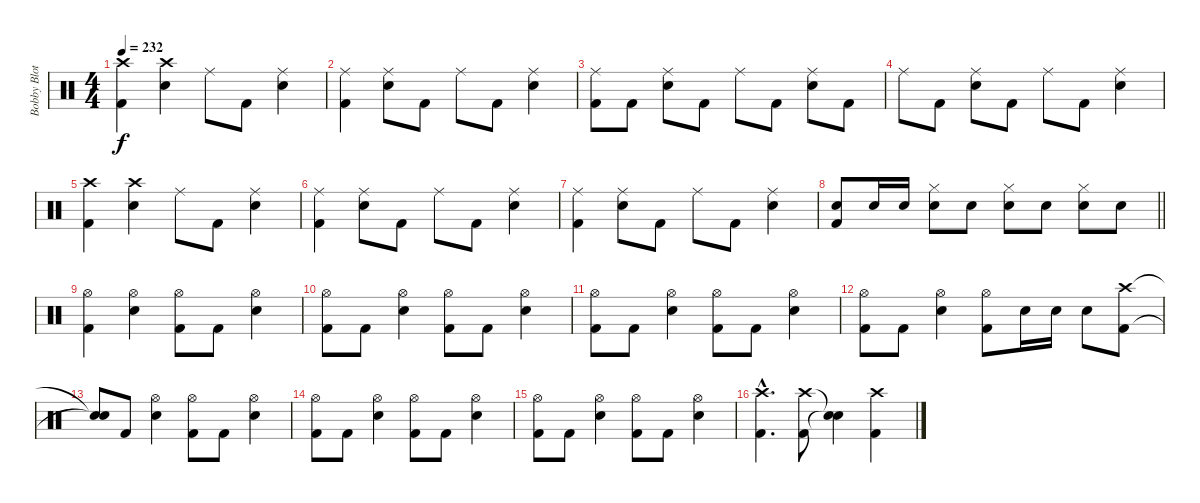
\track ("Bobby Blotzer" "Bobby Blot") {instrument percussion}
\staff {score}
\articulation defaults
\ts (4 4)
\tempo 232
\clef neutral
\ks c
("Crash high (hit)" "Kick (hit) 2").4{dy f} ("Crash high (hit)" "Electric Snare (hit)").4 "Ride (middle)".8 "Kick (hit) 2".8 ("Ride (middle)" "Electric Snare (hit)").4 |
("Ride (middle)" "Kick (hit) 2").4 ("Ride (middle)" "Electric Snare (hit)").8 "Kick (hit) 2".8 "Ride (middle)".8 "Kick (hit) 2".8 ("Ride (middle)" "Electric Snare (hit)").4 |
("Ride (middle)" "Kick (hit) 2").8 "Kick (hit) 2".8 ("Ride (middle)" "Electric Snare (hit)").8 "Kick (hit) 2".8 "Ride (middle)".8 "Kick (hit) 2".8 ("Ride (middle)" "Electric Snare (hit)").8 "Kick (hit) 2".8 |
"Ride (middle)".8 "Kick (hit) 2".8 ("Ride (middle)" "Electric Snare (hit)").8 "Kick (hit) 2".8 "Ride (middle)".8 "Kick (hit) 2".8 ("Ride (middle)" "Electric Snare (hit)").4 |
("Crash high (hit)" "Kick (hit) 2").4 ("Crash high (hit)" "Electric Snare (hit)").4 "Ride (middle)".8 "Kick (hit) 2".8 ("Ride (middle)" "Electric Snare (hit)").4 |
("Ride (middle)" "Kick (hit) 2").4 ("Ride (middle)" "Electric Snare (hit)").8 "Kick (hit) 2".8 "Ride (middle)".8 "Kick (hit) 2".8 ("Ride (middle)" "Electric Snare (hit)").4 |
("Ride (middle)" "Kick (hit) 2").4 ("Ride (middle)" "Electric Snare (hit)").8 "Kick (hit) 2".8 "Ride (middle)".8 "Kick (hit) 2".8 ("Ride (middle)" "Electric Snare (hit)").4 |
\barLineRight lightlight
("Electric Snare (hit)" "Kick (hit) 2").8 "Electric Snare (hit)".16 "Electric Snare (hit)".16 ("Hi-Hat (closed)" "Electric Snare (hit)").8 "Electric Snare (hit)".8 ("Hi-Hat (closed)" "Electric Snare (hit)").8 "Electric Snare (hit)".8 ("Hi-Hat (closed)" "Electric Snare (hit)").8 "Electric Snare (hit)".8 |
("Hi-Hat (open)" "Kick (hit) 2").4 ("Hi-Hat (open)" "Electric Snare (hit)").4 ("Hi-Hat (open)" "Kick (hit) 2").8 "Kick (hit) 2".8 ("Hi-Hat (open)" "Electric Snare (hit)").4 |
("Hi-Hat (open)" "Kick (hit) 2").8 "Kick (hit) 2".8 ("Hi-Hat (open)" "Electric Snare (hit)").4 ("Hi-Hat (open)" "Kick (hit) 2").8 "Kick (hit) 2".8 ("Hi-Hat (open)" "Electric Snare (hit)").4 |
("Hi-Hat (open)" "Kick (hit) 2").8 "Kick (hit) 2".8 ("Hi-Hat (open)" "Electric Snare (hit)").4 ("Hi-Hat (open)" "Kick (hit) 2").8 "Kick (hit) 2".8 ("Hi-Hat (open)" "Electric Snare (hit)").4 |
("Hi-Hat (open)" "Kick (hit) 2").8 "Kick (hit) 2".8 ("Hi-Hat (open)" "Electric Snare (hit)").4 ("Hi-Hat (open)" "Kick (hit) 2").8 "Electric Snare (hit)".16 "Electric Snare (hit)".16 "Electric Snare (hit)".8 ("Crash high (hit)" "Kick (hit) 2").8 |
("Snare (hit)"{t} "Snare (hit)"{t}).8 "Kick (hit) 2".8 ("Hi-Hat (open)" "Electric Snare (hit)").4 ("Hi-Hat (open)" "Kick (hit) 2").8 "Kick (hit) 2".8 ("Hi-Hat (open)" "Electric Snare (hit)").4 |
("Hi-Hat (open)" "Kick (hit) 2").8 "Kick (hit) 2".8 ("Hi-Hat (open)" "Electric Snare (hit)").4 ("Hi-Hat (open)" "Kick (hit) 2").8 "Kick (hit) 2".8 ("Hi-Hat (open)" "Electric Snare (hit)").4 |
("Hi-Hat (open)" "Kick (hit) 2").8 "Kick (hit) 2".8 ("Hi-Hat (open)" "Electric Snare (hit)").4 ("Hi-Hat (open)" "Kick (hit) 2").8 "Kick (hit) 2".8 ("Hi-Hat (open)" "Electric Snare (hit)").4 |
("Crash high (hit)"{hac} "Kick (hit) 2"{hac}).4{d} ("Crash high (hit)" "Kick (hit) 2").8 ("Snare (hit)"{t} "Snare (hit)"{t}).4 ("Crash high (hit)" "Kick (hit) 2").4
